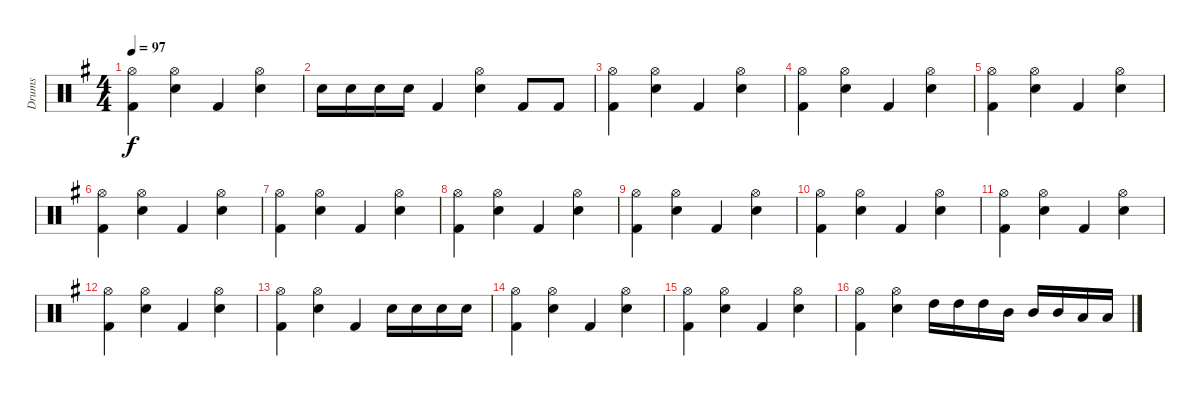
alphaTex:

\track ("Drums" "Drums") {instrument percussion}
\staff {score}
\articulation defaults
\ts (4 4)
\tempo 97
\clef neutral
\ks g
("Hi-Hat (open)" "Kick (hit) 2").4{dy f} ("Hi-Hat (open)" "Snare (hit) 2").4 "Kick (hit) 2".4 ("Hi-Hat (open)" "Snare (hit) 2").4 |
"Snare (hit) 2".16 "Snare (hit) 2".16 "Snare (hit) 2".16 "Snare (hit) 2".16 "Kick (hit) 2".4 ("Hi-Hat (open)" "Snare (hit) 2").4 "Kick (hit) 2".8 "Kick (hit) 2".8 |
("Hi-Hat (open)" "Kick (hit) 2").4 ("Hi-Hat (open)" "Snare (hit) 2").4 "Kick (hit) 2".4 ("Hi-Hat (open)" "Snare (hit) 2").4 |
("Hi-Hat (open)" "Kick (hit) 2").4 ("Hi-Hat (open)" "Snare (hit) 2").4 "Kick (hit) 2".4 ("Hi-Hat (open)" "Snare (hit) 2").4 |
("Hi-Hat (open)" "Kick (hit) 2").4 ("Hi-Hat (open)" "Snare (hit) 2").4 "Kick (hit) 2".4 ("Hi-Hat (open)" "Snare (hit) 2").4 |
("Hi-Hat (open)" "Kick (hit) 2").4 ("Hi-Hat (open)" "Snare (hit) 2").4 "Kick (hit) 2".4 ("Hi-Hat (open)" "Snare (hit) 2").4 |
("Hi-Hat (open)" "Kick (hit) 2").4 ("Hi-Hat (open)" "Snare (hit) 2").4 "Kick (hit) 2".4 ("Hi-Hat (open)" "Snare (hit) 2").4 |
("Hi-Hat (open)" "Kick (hit) 2").4 ("Hi-Hat (open)" "Snare (hit) 2").4 "Kick (hit) 2".4 ("Hi-Hat (open)" "Snare (hit) 2").4 |
("Hi-Hat (open)" "Kick (hit) 2").4 ("Hi-Hat (open)" "Snare (hit) 2").4 "Kick (hit) 2".4 ("Hi-Hat (open)" "Snare (hit) 2").4 |
("Hi-Hat (open)" "Kick (hit) 2").4 ("Hi-Hat (open)" "Snare (hit) 2").4 "Kick (hit) 2".4 ("Hi-Hat (open)" "Snare (hit) 2").4 |
("Hi-Hat (open)" "Kick (hit) 2").4 ("Hi-Hat (open)" "Snare (hit) 2").4 "Kick (hit) 2".4 ("Hi-Hat (open)" "Snare (hit) 2").4 |
("Hi-Hat (open)" "Kick (hit) 2").4 ("Hi-Hat (open)" "Snare (hit) 2").4 "Kick (hit) 2".4 ("Hi-Hat (open)" "Snare (hit) 2").4 |
("Hi-Hat (open)" "Kick (hit) 2").4 ("Hi-Hat (open)" "Snare (hit) 2").4 "Kick (hit) 2".4 "Snare (hit) 2".16 "Snare (hit) 2".16 "Snare (hit) 2".16 "Snare (hit) 2".16 |
("Hi-Hat (open)" "Kick (hit) 2").4 ("Hi-Hat (open)" "Snare (hit) 2").4 "Kick (hit) 2".4 ("Hi-Hat (open)" "Snare (hit) 2").4 |
("Hi-Hat (open)" "Kick (hit) 2").4 ("Hi-Hat (open)" "Snare (hit) 2").4 "Kick (hit) 2".4 ("Hi-Hat (open)" "Snare (hit) 2").4 |
("Hi-Hat (open)" "Kick (hit) 2").4 ("Hi-Hat (open)" "Snare (hit) 2").4 "High Tom (hit)".16 "High Tom (hit)".16 "High Tom (hit)".16 "Mid Tom (hit)".16 "Mid Tom (hit)".16 "Mid Tom (hit)".16 "Low Tom (hit)".16 "Low Tom (hit)".16
